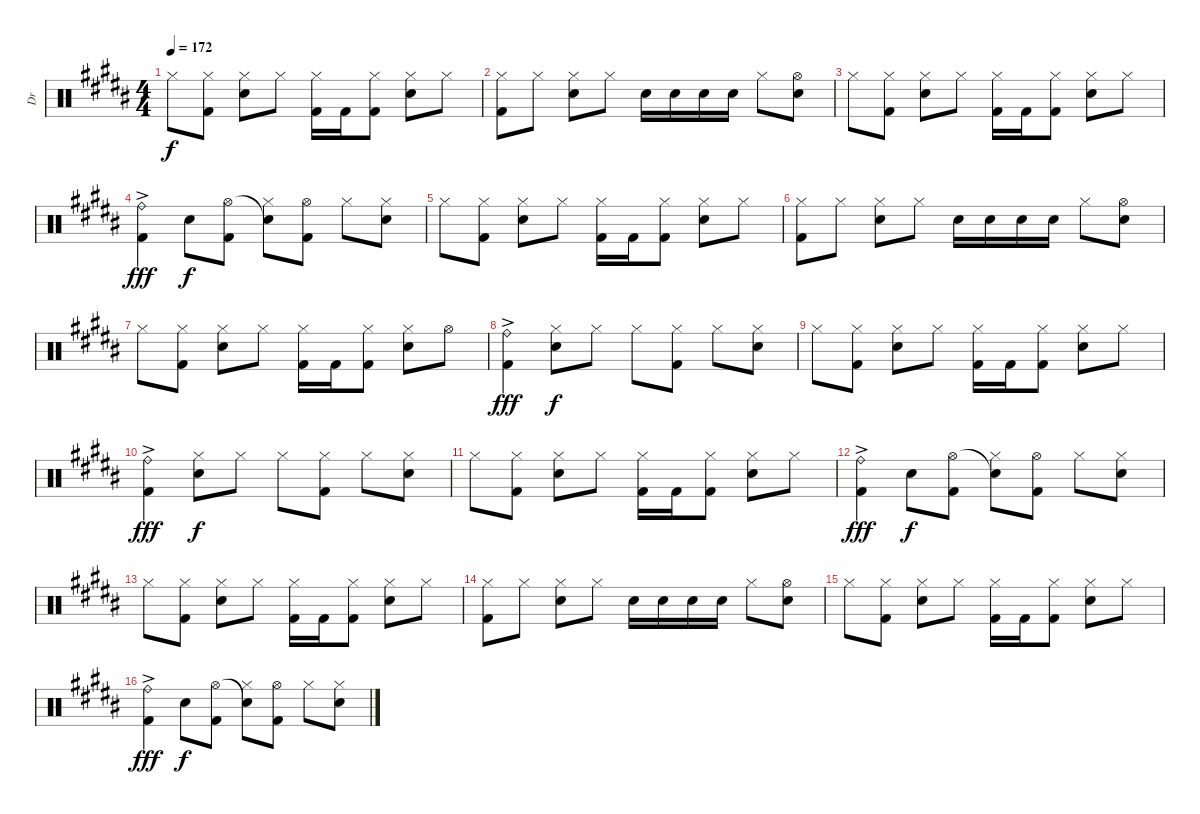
\track ("Dr" "Dr") {instrument percussion}
\staff {score}
\articulation defaults
\ts (4 4)
\tempo 172
\clef neutral
\ks b "Hi-Hat (closed)".8{dy f}
("Hi-Hat (closed)" "Kick (hit) 2").8 ("Hi-Hat (closed)" "Electric Snare (hit)").8 "Hi-Hat (closed)".8 ("Hi-Hat (closed)" "Kick (hit) 2").16 "Kick (hit) 2".16 ("Hi-Hat (closed)" "Kick (hit) 2").8 ("Hi-Hat (closed)" "Electric Snare (hit)").8 "Hi-Hat (closed)".8 |
("Hi-Hat (closed)" "Kick (hit) 2").8 "Hi-Hat (closed)".8 ("Hi-Hat (closed)" "Electric Snare (hit)").8 "Hi-Hat (closed)".8 "Electric Snare (hit)".16 "Electric Snare (hit)".16 "Electric Snare (hit)".16 "Electric Snare (hit)".16 "Hi-Hat (closed)".8 ("Hi-Hat (open)" "Electric Snare (hit)").8 |
"Hi-Hat (closed)".8 ("Hi-Hat (closed)" "Kick (hit) 2").8 ("Hi-Hat (closed)" "Electric Snare (hit)").8 "Hi-Hat (closed)".8 ("Hi-Hat (closed)" "Kick (hit) 2").16 "Kick (hit) 2".16 ("Hi-Hat (closed)" "Kick (hit) 2").8 ("Hi-Hat (closed)" "Electric Snare (hit)").8 "Hi-Hat (closed)".8 |
("Ride (bell)"{ac} "Kick (hit) 2"{ac}).4{dy fff} "Electric Snare (hit)".8{dy f} ("Hi-Hat (open)" "Kick (hit) 2").8 ("Snare (hit)"{t} "Hi-Hat (closed)").8 ("Hi-Hat (open)" "Kick (hit) 2").8 "Hi-Hat (closed)".8 ("Hi-Hat (closed)" "Electric Snare (hit)").8 |
"Hi-Hat (closed)".8 ("Hi-Hat (closed)" "Kick (hit) 2").8 ("Hi-Hat (closed)" "Electric Snare (hit)").8 "Hi-Hat (closed)".8 ("Hi-Hat (closed)" "Kick (hit) 2").16 "Kick (hit) 2".16 ("Hi-Hat (closed)" "Kick (hit) 2").8 ("Hi-Hat (closed)" "Electric Snare (hit)").8 "Hi-Hat (closed)".8 |
("Hi-Hat (closed)" "Kick (hit) 2").8 "Hi-Hat (closed)".8 ("Hi-Hat (closed)" "Electric Snare (hit)").8 "Hi-Hat (closed)".8 "Electric Snare (hit)".16 "Electric Snare (hit)".16 "Electric Snare (hit)".16 "Electric Snare (hit)".16 "Hi-Hat (closed)".8 ("Hi-Hat (open)" "Electric Snare (hit)").8 |
"Hi-Hat (closed)".8 ("Hi-Hat (closed)" "Kick (hit) 2").8 ("Hi-Hat (closed)" "Electric Snare (hit)").8 "Hi-Hat (closed)".8 ("Hi-Hat (closed)" "Kick (hit) 2").16 "Kick (hit) 2".16 ("Hi-Hat (closed)" "Kick (hit) 2").8 ("Hi-Hat (closed)" "Electric Snare (hit)").8 "Hi-Hat (open)".8 |
("Ride (bell)"{ac} "Kick (hit) 2"{ac}).4{dy fff} ("Hi-Hat (closed)" "Electric Snare (hit)").8{dy f} "Hi-Hat (closed)".8 "Hi-Hat (closed)".8 ("Hi-Hat (closed)" "Kick (hit) 2").8 "Hi-Hat (closed)".8 ("Hi-Hat (closed)" "Electric Snare (hit)").8 |
"Hi-Hat (closed)".8 ("Hi-Hat (closed)" "Kick (hit) 2").8 ("Hi-Hat (closed)" "Electric Snare (hit)").8 "Hi-Hat (closed)".8 ("Hi-Hat (closed)" "Kick (hit) 2").16 "Kick (hit) 2".16 ("Hi-Hat (closed)" "Kick (hit) 2").8 ("Hi-Hat (closed)" "Electric Snare (hit)").8 "Hi-Hat (closed)".8 |
("Ride (bell)"{ac} "Kick (hit) 2"{ac}).4{dy fff} ("Hi-Hat (closed)" "Electric Snare (hit)").8{dy f} "Hi-Hat (closed)".8 "Hi-Hat (closed)".8 ("Hi-Hat (closed)" "Kick (hit) 2").8 "Hi-Hat (closed)".8 ("Hi-Hat (closed)" "Electric Snare (hit)").8 |
"Hi-Hat (closed)".8 ("Hi-Hat (closed)" "Kick (hit) 2").8 ("Hi-Hat (closed)" "Electric Snare (hit)").8 "Hi-Hat (closed)".8 ("Hi-Hat (closed)" "Kick (hit) 2").16 "Kick (hit) 2".16 ("Hi-Hat (closed)" "Kick (hit) 2").8 ("Hi-Hat (closed)" "Electric Snare (hit)").8 "Hi-Hat (closed)".8 |
("Ride (bell)"{ac} "Kick (hit) 2"{ac}).4{dy fff} "Electric Snare (hit)".8{dy f} ("Hi-Hat (open)" "Kick (hit) 2").8 ("Snare (hit)"{t} "Hi-Hat (closed)").8 ("Hi-Hat (open)" "Kick (hit) 2").8 "Hi-Hat (closed)".8 ("Hi-Hat (closed)" "Electric Snare (hit)").8 |
"Hi-Hat (closed)".8 ("Hi-Hat (closed)" "Kick (hit) 2").8 ("Hi-Hat (closed)" "Electric Snare (hit)").8 "Hi-Hat (closed)".8 ("Hi-Hat (closed)" "Kick (hit) 2").16 "Kick (hit) 2".16 ("Hi-Hat (closed)" "Kick (hit) 2").8 ("Hi-Hat (closed)" "Electric Snare (hit)").8 "Hi-Hat (closed)".8 |
("Hi-Hat (closed)" "Kick (hit) 2").8 "Hi-Hat (closed)".8 ("Hi-Hat (closed)" "Electric Snare (hit)").8 "Hi-Hat (closed)".8 "Electric Snare (hit)".16 "Electric Snare (hit)".16 "Electric Snare (hit)".16 "Electric Snare (hit)".16 "Hi-Hat (closed)".8 ("Hi-Hat (open)" "Electric Snare (hit)").8 |
"Hi-Hat (closed)".8 ("Hi-Hat (closed)" "Kick (hit) 2").8 ("Hi-Hat (closed)" "Electric Snare (hit)").8 "Hi-Hat (closed)".8 ("Hi-Hat (closed)" "Kick (hit) 2").16 "Kick (hit) 2".16 ("Hi-Hat (closed)" "Kick (hit) 2").8 ("Hi-Hat (closed)" "Electric Snare (hit)").8 "Hi-Hat (closed)".8 |
("Ride (bell)"{ac} "Kick (hit) 2"{ac}).4{dy fff} "Electric Snare (hit)".8{dy f} ("Hi-Hat (open)" "Kick (hit) 2").8 ("Snare (hit)"{t} "Hi-Hat (closed)").8 ("Hi-Hat (open)" "Kick (hit) 2").8 "Hi-Hat (closed)".8 ("Hi-Hat (closed)" "Electric Snare (hit)").8
